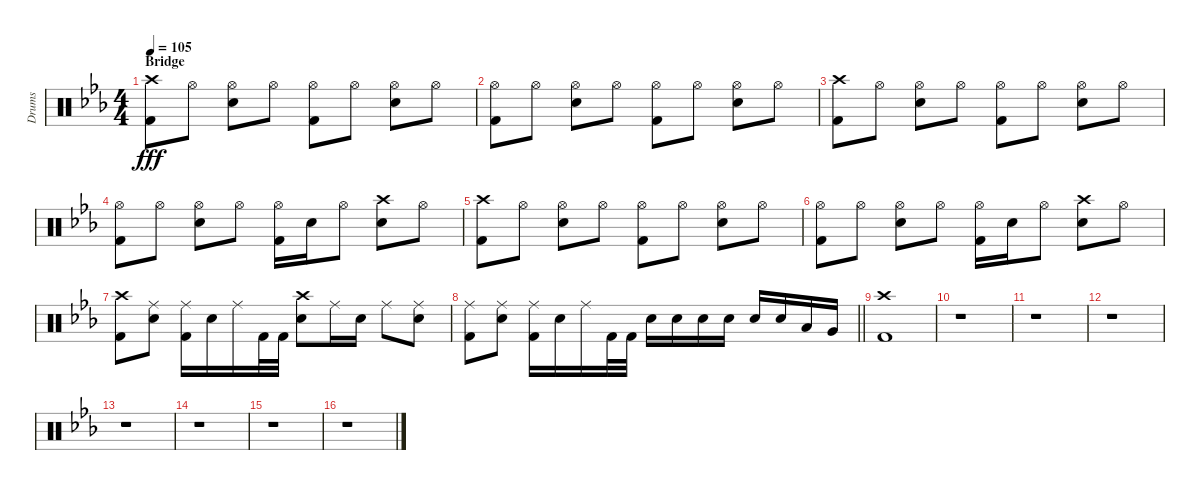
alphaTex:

\track ("Drums" "Drums") {instrument percussion}
\staff {score}
\articulation defaults
\ts (4 4)
\section ("" "Bridge")
\tempo 105
\clef neutral
\ks eb
("Crash high (hit)" "Kick (hit) 2").8{dy fff} "Hi-Hat (open)".8 ("Hi-Hat (open)" "Snare (hit) 2").8 "Hi-Hat (open)".8 ("Hi-Hat (open)" "Kick (hit) 2").8 "Hi-Hat (open)".8 ("Hi-Hat (open)" "Snare (hit) 2").8 "Hi-Hat (open)".8 |
("Hi-Hat (open)" "Kick (hit) 2").8 "Hi-Hat (open)".8 ("Hi-Hat (open)" "Snare (hit) 2").8 "Hi-Hat (open)".8 ("Hi-Hat (open)" "Kick (hit) 2").8 "Hi-Hat (open)".8 ("Hi-Hat (open)" "Snare (hit) 2").8 "Hi-Hat (open)".8 |
("Crash high (hit)" "Kick (hit) 2").8 "Hi-Hat (open)".8 ("Hi-Hat (open)" "Snare (hit) 2").8 "Hi-Hat (open)".8 ("Hi-Hat (open)" "Kick (hit) 2").8 "Hi-Hat (open)".8 ("Hi-Hat (open)" "Snare (hit) 2").8 "Hi-Hat (open)".8 |
("Hi-Hat (open)" "Kick (hit) 2").8 "Hi-Hat (open)".8 ("Hi-Hat (open)" "Snare (hit) 2").8 "Hi-Hat (open)".8 ("Hi-Hat (open)" "Kick (hit) 2").16 "Snare (hit) 2".16 "Hi-Hat (open)".8 ("Crash high (hit)" "Snare (hit) 2").8 "Hi-Hat (open)".8 |
("Crash high (hit)" "Kick (hit) 2").8 "Hi-Hat (open)".8 ("Hi-Hat (open)" "Snare (hit) 2").8 "Hi-Hat (open)".8 ("Hi-Hat (open)" "Kick (hit) 2").8 "Hi-Hat (open)".8 ("Hi-Hat (open)" "Snare (hit) 2").8 "Hi-Hat (open)".8 |
("Hi-Hat (open)" "Kick (hit) 2").8 "Hi-Hat (open)".8 ("Hi-Hat (open)" "Snare (hit) 2").8 "Hi-Hat (open)".8 ("Hi-Hat (open)" "Kick (hit) 2").16 "Snare (hit) 2".16 "Hi-Hat (open)".8 ("Crash high (hit)" "Snare (hit) 2").8 "Hi-Hat (open)".8 |
("Crash high (hit)" "Kick (hit) 2").8 ("Ride (middle)" "Snare (hit) 2").8 ("Ride (middle)" "Kick (hit) 2").16 "Snare (hit) 2".16 "Ride (middle)".16 "Kick (hit) 2".32 "Kick (hit) 2".32 ("Crash high (hit)" "Snare (hit) 2").8 "Ride (middle)".16 "Snare (hit) 2".16 "Ride (middle)".8 ("Ride (middle)" "Snare (hit) 2").8 |
\barLineRight lightlight
("Ride (middle)" "Kick (hit) 2").8 ("Ride (middle)" "Snare (hit) 2").8 ("Ride (middle)" "Kick (hit) 2").16 "Snare (hit) 2".16 "Ride (middle)".16 "Kick (hit) 2".32 "Kick (hit) 2".32 "Snare (hit) 2".16 "Snare (hit) 2".16 "Snare (hit) 2".16 "Snare (hit) 2".16 "Snare (hit) 2".16 "Snare (hit) 2".16 "Low Tom (hit)".16 "Very Low Tom (hit)".16 |
("Crash high (hit)" "Kick (hit) 2").1 |
r.1 |
r.1 |
r.1 |
r.1 |
r.1 |
r.1 |
r.1
